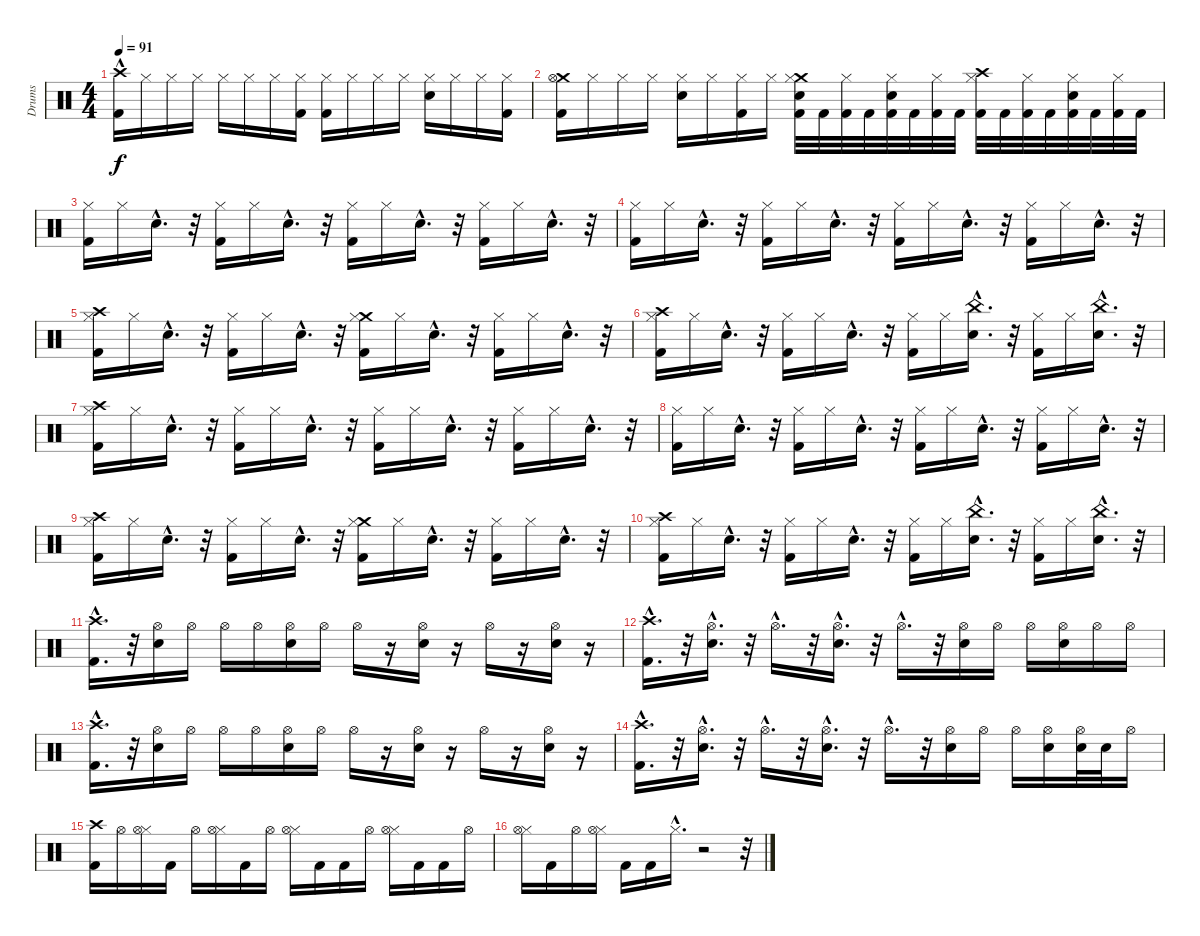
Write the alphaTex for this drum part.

\track ("Drums" "Drums") {instrument percussion}
\staff {score}
\articulation defaults
\ts (4 4)
\tempo 91
\clef neutral
\ks c
("Crash high (hit)" "Kick (hit) 2"{hac}).16{dy f} "Hi-Hat (closed)".16 "Hi-Hat (closed)".16 "Hi-Hat (closed)".16 "Hi-Hat (closed)".16 "Hi-Hat (closed)".16 "Hi-Hat (closed)".16 ("Hi-Hat (closed)" "Kick (hit) 2").16 ("Hi-Hat (closed)" "Kick (hit) 2").16 "Hi-Hat (closed)".16 "Hi-Hat (closed)".16 "Hi-Hat (closed)".16 ("Snare (hit) 2" "Hi-Hat (closed)").16 "Hi-Hat (closed)".16 "Hi-Hat (closed)".16 ("Kick (hit) 2" "Hi-Hat (closed)").16 |
("Crash medium (hit)" "Hi-Hat (open)" "Kick (hit) 2").16 "Hi-Hat (closed)".16 "Hi-Hat (closed)".16 "Hi-Hat (closed)".16 ("Snare (hit) 2" "Hi-Hat (closed)").16 "Hi-Hat (closed)".16 ("Kick (hit) 2" "Hi-Hat (closed)").16 "Hi-Hat (closed)".16 ("Crash medium (hit)" "Kick (hit) 2" "Snare (hit) 2" "Hi-Hat (closed)").32 "Kick (hit) 2".32 ("Kick (hit) 2" "Hi-Hat (closed)").32 "Kick (hit) 2".32 ("Kick (hit) 2" "Snare (hit) 2" "Hi-Hat (closed)").32 "Kick (hit) 2".32 ("Kick (hit) 2" "Hi-Hat (closed)").32 "Kick (hit) 2".32 ("Crash high (hit)" "Kick (hit) 2" "Hi-Hat (closed)").32 "Kick (hit) 2".32 ("Kick (hit) 2" "Hi-Hat (closed)").32 "Kick (hit) 2".32 ("Snare (hit) 2" "Kick (hit) 2" "Hi-Hat (closed)").32 "Kick (hit) 2".32 ("Kick (hit) 2" "Hi-Hat (closed)").32 "Kick (hit) 2".32 |
("Kick (hit) 2" "Hi-Hat (closed)").16 "Hi-Hat (closed)".16 "Snare (hit) 2"{hac}.16{d} r.32 ("Kick (hit) 2" "Hi-Hat (closed)").16 "Hi-Hat (closed)".16 "Snare (hit) 2"{hac}.16{d} r.32 ("Kick (hit) 2" "Hi-Hat (closed)").16 "Hi-Hat (closed)".16 "Snare (hit) 2"{hac}.16{d} r.32 ("Kick (hit) 2" "Hi-Hat (closed)").16 "Hi-Hat (closed)".16 "Snare (hit) 2"{hac}.16{d} r.32 |
("Kick (hit) 2" "Hi-Hat (closed)").16 "Hi-Hat (closed)".16 "Snare (hit) 2"{hac}.16{d} r.32 ("Kick (hit) 2" "Hi-Hat (closed)").16 "Hi-Hat (closed)".16 "Snare (hit) 2"{hac}.16{d} r.32 ("Kick (hit) 2" "Hi-Hat (closed)").16 "Hi-Hat (closed)".16 "Snare (hit) 2"{hac}.16{d} r.32 ("Kick (hit) 2" "Hi-Hat (closed)").16 "Hi-Hat (closed)".16 "Snare (hit) 2"{hac}.16{d} r.32 |
("Crash high (hit)" "Kick (hit) 2" "Hi-Hat (closed)").16 "Hi-Hat (closed)".16 "Snare (hit) 2"{hac}.16{d} r.32 ("Kick (hit) 2" "Hi-Hat (closed)").16 "Hi-Hat (closed)".16 "Snare (hit) 2"{hac}.16{d} r.32 ("Crash medium (hit)" "Kick (hit) 2" "Hi-Hat (closed)").16 "Hi-Hat (closed)".16 "Snare (hit) 2"{hac}.16{d} r.32 ("Kick (hit) 2" "Hi-Hat (closed)").16 "Hi-Hat (closed)".16 "Snare (hit) 2"{hac}.16{d} r.32 |
("Crash high (hit)" "Kick (hit) 2" "Hi-Hat (closed)").16 "Hi-Hat (closed)".16 "Snare (hit) 2"{hac}.16{d} r.32 ("Kick (hit) 2" "Hi-Hat (closed)").16 "Hi-Hat (closed)".16 "Snare (hit) 2"{hac}.16{d} r.32 ("Kick (hit) 2" "Hi-Hat (closed)").16 "Hi-Hat (closed)".16 ("China (hit)"{hac} "Snare (hit) 2"{hac}).16{d} r.32 ("Kick (hit) 2" "Hi-Hat (closed)").16 "Hi-Hat (closed)".16 ("China (hit)"{hac} "Snare (hit) 2"{hac}).16{d} r.32 |
("Crash high (hit)" "Kick (hit) 2" "Hi-Hat (closed)").16 "Hi-Hat (closed)".16 "Snare (hit) 2"{hac}.16{d} r.32 ("Kick (hit) 2" "Hi-Hat (closed)").16 "Hi-Hat (closed)".16 "Snare (hit) 2"{hac}.16{d} r.32 ("Kick (hit) 2" "Hi-Hat (closed)").16 "Hi-Hat (closed)".16 "Snare (hit) 2"{hac}.16{d} r.32 ("Kick (hit) 2" "Hi-Hat (closed)").16 "Hi-Hat (closed)".16 "Snare (hit) 2"{hac}.16{d} r.32 |
("Kick (hit) 2" "Hi-Hat (closed)").16 "Hi-Hat (closed)".16 "Snare (hit) 2"{hac}.16{d} r.32 ("Kick (hit) 2" "Hi-Hat (closed)").16 "Hi-Hat (closed)".16 "Snare (hit) 2"{hac}.16{d} r.32 ("Kick (hit) 2" "Hi-Hat (closed)").16 "Hi-Hat (closed)".16 "Snare (hit) 2"{hac}.16{d} r.32 ("Kick (hit) 2" "Hi-Hat (closed)").16 "Hi-Hat (closed)".16 "Snare (hit) 2"{hac}.16{d} r.32 |
("Crash high (hit)" "Kick (hit) 2" "Hi-Hat (closed)").16 "Hi-Hat (closed)".16 "Snare (hit) 2"{hac}.16{d} r.32 ("Kick (hit) 2" "Hi-Hat (closed)").16 "Hi-Hat (closed)".16 "Snare (hit) 2"{hac}.16{d} r.32 ("Crash medium (hit)" "Kick (hit) 2" "Hi-Hat (closed)").16 "Hi-Hat (closed)".16 "Snare (hit) 2"{hac}.16{d} r.32 ("Kick (hit) 2" "Hi-Hat (closed)").16 "Hi-Hat (closed)".16 "Snare (hit) 2"{hac}.16{d} r.32 |
("Crash high (hit)" "Kick (hit) 2" "Hi-Hat (closed)").16 "Hi-Hat (closed)".16 "Snare (hit) 2"{hac}.16{d} r.32 ("Kick (hit) 2" "Hi-Hat (closed)").16 "Hi-Hat (closed)".16 "Snare (hit) 2"{hac}.16{d} r.32 ("Kick (hit) 2" "Hi-Hat (closed)").16 "Hi-Hat (closed)".16 ("China (hit)"{hac} "Snare (hit) 2"{hac}).16{d} r.32 ("Kick (hit) 2" "Hi-Hat (closed)").16 "Hi-Hat (closed)".16 ("China (hit)"{hac} "Snare (hit) 2"{hac}).16{d} r.32 |
("Crash high (hit)"{hac} "Kick (hit) 2").16{d} r.32 ("Snare (hit) 2" "Hi-Hat (open)").16 "Hi-Hat (open)".16 "Hi-Hat (open)".16 "Hi-Hat (open)".16 ("Snare (hit) 2" "Hi-Hat (open)").16 "Hi-Hat (open)".16 "Hi-Hat (open)".16 r.16 ("Snare (hit) 2" "Hi-Hat (open)").16 r.16 "Hi-Hat (open)".16 r.16 ("Snare (hit) 2" "Hi-Hat (open)").16 r.16 |
("Kick (hit) 2"{hac} "Crash high (hit)"{hac}).16{d} r.32 ("Snare (hit) 2"{hac} "Hi-Hat (open)"{hac}).16{d} r.32 "Hi-Hat (open)"{hac}.16{d} r.32 ("Snare (hit) 2"{hac} "Hi-Hat (open)"{hac}).16{d} r.32 "Hi-Hat (open)"{hac}.16{d} r.32 ("Snare (hit) 2" "Hi-Hat (open)").16 "Hi-Hat (open)".16 "Hi-Hat (open)".16 ("Snare (hit) 2" "Hi-Hat (open)").16 "Hi-Hat (open)".16 "Hi-Hat (open)".16 |
("Crash high (hit)"{hac} "Kick (hit) 2").16{d} r.32 ("Snare (hit) 2" "Hi-Hat (open)").16 "Hi-Hat (open)".16 "Hi-Hat (open)".16 "Hi-Hat (open)".16 ("Snare (hit) 2" "Hi-Hat (open)").16 "Hi-Hat (open)".16 "Hi-Hat (open)".16 r.16 ("Snare (hit) 2" "Hi-Hat (open)").16 r.16 "Hi-Hat (open)".16 r.16 ("Snare (hit) 2" "Hi-Hat (open)").16 r.16 |
("Kick (hit) 2"{hac} "Crash high (hit)"{hac}).16{d} r.32 ("Snare (hit) 2"{hac} "Hi-Hat (open)"{hac}).16{d} r.32 "Hi-Hat (open)"{hac}.16{d} r.32 ("Snare (hit) 2"{hac} "Hi-Hat (open)"{hac}).16{d} r.32 "Hi-Hat (open)"{hac}.16{d} r.32 ("Snare (hit) 2" "Hi-Hat (open)").16 "Hi-Hat (open)".16 "Hi-Hat (open)".16 ("Snare (hit) 2" "Hi-Hat (open)").16 ("Snare (hit) 2" "Hi-Hat (open)").32 "Snare (hit) 2".32 "Hi-Hat (open)".16 |
("Crash high (hit)" "Kick (hit) 2").16 "Hi-Hat (open)".16 ("Hi-Hat (closed)" "Hi-Hat (open)").16 "Kick (hit) 2".16 "Hi-Hat (open)".16 ("Hi-Hat (closed)" "Hi-Hat (open)").16 "Kick (hit) 2".16 "Hi-Hat (open)".16 ("Hi-Hat (closed)" "Hi-Hat (open)").16 "Kick (hit) 2".16 "Kick (hit) 2".16 "Hi-Hat (open)".16 ("Hi-Hat (closed)" "Hi-Hat (open)").16 "Kick (hit) 2".16 "Kick (hit) 2".16 "Hi-Hat (open)".16 |
("Hi-Hat (closed)" "Hi-Hat (open)").16 "Kick (hit) 2".16 "Hi-Hat (open)".16 ("Hi-Hat (closed)" "Hi-Hat (open)").16 "Kick (hit) 2".16 "Kick (hit) 2".16 "Hi-Hat (closed)"{hac}.16{d} r.2 r.32
